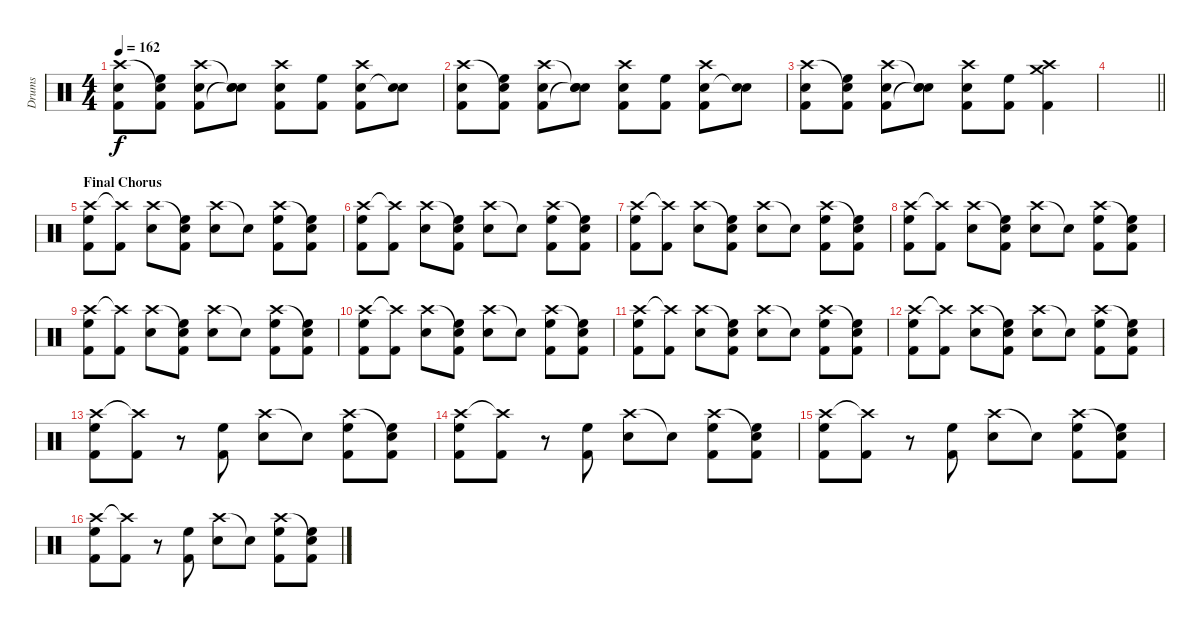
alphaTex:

\track ("Drums" "Drums") {instrument percussion}
\staff {score}
\articulation defaults
\ts (4 4)
\tempo 162
\clef neutral
\ks c
("Crash high (hit)" "Snare (hit) 2" "Kick (hit) 2").8{dy f} ("Snare (hit)"{t} "High Floor Tom (hit)" "Kick (hit) 2").8 ("Crash high (hit)" "Snare (hit) 2" "Kick (hit) 2").8 ("Snare (hit)"{t} "Snare (hit) 2" "Snare (hit)"{t}).8 ("Crash high (hit)" "Snare (hit) 2" "Kick (hit) 2").8 ("High Floor Tom (hit)" "Kick (hit) 2").8 ("Crash high (hit)" "Snare (hit) 2" "Kick (hit) 2").8 ("Snare (hit) 2" "Snare (hit)"{t}).8 |
("Crash high (hit)" "Snare (hit) 2" "Kick (hit) 2").8 ("Snare (hit)"{t} "High Floor Tom (hit)" "Kick (hit) 2").8 ("Crash high (hit)" "Snare (hit) 2" "Kick (hit) 2").8 ("Snare (hit)"{t} "Snare (hit) 2" "Snare (hit)"{t}).8 ("Crash high (hit)" "Snare (hit) 2" "Kick (hit) 2").8 ("High Floor Tom (hit)" "Kick (hit) 2").8 ("Crash high (hit)" "Snare (hit) 2" "Kick (hit) 2").8 ("Snare (hit) 2" "Snare (hit)"{t}).8 |
("Crash high (hit)" "Snare (hit) 2" "Kick (hit) 2").8 ("Snare (hit)"{t} "High Floor Tom (hit)" "Kick (hit) 2").8 ("Crash high (hit)" "Snare (hit) 2" "Kick (hit) 2").8 ("Snare (hit)"{t} "Snare (hit) 2" "Snare (hit)"{t}).8 ("Crash high (hit)" "Snare (hit) 2" "Kick (hit) 2").8 ("High Floor Tom (hit)" "Kick (hit) 2").8 ("Crash high (hit)" "Crash medium (hit)" "Kick (hit) 2").4 |
\barLineRight lightlight
|
\section ("" "Final Chorus")
("Crash high (hit)" "High Floor Tom (hit)" "Kick (hit) 2").8 ("Crash high (hit)"{t} "Kick (hit) 2").8 ("Crash high (hit)" "Snare (hit) 2").8 ("Snare (hit)"{t} "High Floor Tom (hit)" "Kick (hit) 2").8 ("Crash high (hit)" "Snare (hit) 2").8 "Snare (hit)"{t}.8 ("Crash high (hit)" "High Floor Tom (hit)" "Kick (hit) 2").8 ("Snare (hit)"{t} "High Floor Tom (hit)" "Kick (hit) 2").8 |
("Crash high (hit)" "High Floor Tom (hit)" "Kick (hit) 2").8 ("Crash high (hit)"{t} "Kick (hit) 2").8 ("Crash high (hit)" "Snare (hit) 2").8 ("Snare (hit)"{t} "High Floor Tom (hit)" "Kick (hit) 2").8 ("Crash high (hit)" "Snare (hit) 2").8 "Snare (hit)"{t}.8 ("Crash high (hit)" "High Floor Tom (hit)" "Kick (hit) 2").8 ("Snare (hit)"{t} "High Floor Tom (hit)" "Kick (hit) 2").8 |
("Crash high (hit)" "High Floor Tom (hit)" "Kick (hit) 2").8 ("Crash high (hit)"{t} "Kick (hit) 2").8 ("Crash high (hit)" "Snare (hit) 2").8 ("Snare (hit)"{t} "High Floor Tom (hit)" "Kick (hit) 2").8 ("Crash high (hit)" "Snare (hit) 2").8 "Snare (hit)"{t}.8 ("Crash high (hit)" "High Floor Tom (hit)" "Kick (hit) 2").8 ("Snare (hit)"{t} "High Floor Tom (hit)" "Kick (hit) 2").8 |
("Crash high (hit)" "High Floor Tom (hit)" "Kick (hit) 2").8 ("Crash high (hit)"{t} "Kick (hit) 2").8 ("Crash high (hit)" "Snare (hit) 2").8 ("Snare (hit)"{t} "High Floor Tom (hit)" "Kick (hit) 2").8 ("Crash high (hit)" "Snare (hit) 2").8 "Snare (hit)"{t}.8 ("Crash high (hit)" "High Floor Tom (hit)" "Kick (hit) 2").8 ("Snare (hit)"{t} "High Floor Tom (hit)" "Kick (hit) 2").8 |
("Crash high (hit)" "High Floor Tom (hit)" "Kick (hit) 2").8 ("Crash high (hit)"{t} "Kick (hit) 2").8 ("Crash high (hit)" "Snare (hit) 2").8 ("Snare (hit)"{t} "High Floor Tom (hit)" "Kick (hit) 2").8 ("Crash high (hit)" "Snare (hit) 2").8 "Snare (hit)"{t}.8 ("Crash high (hit)" "High Floor Tom (hit)" "Kick (hit) 2").8 ("Snare (hit)"{t} "High Floor Tom (hit)" "Kick (hit) 2").8 |
("Crash high (hit)" "High Floor Tom (hit)" "Kick (hit) 2").8 ("Crash high (hit)"{t} "Kick (hit) 2").8 ("Crash high (hit)" "Snare (hit) 2").8 ("Snare (hit)"{t} "High Floor Tom (hit)" "Kick (hit) 2").8 ("Crash high (hit)" "Snare (hit) 2").8 "Snare (hit)"{t}.8 ("Crash high (hit)" "High Floor Tom (hit)" "Kick (hit) 2").8 ("Snare (hit)"{t} "High Floor Tom (hit)" "Kick (hit) 2").8 |
("Crash high (hit)" "High Floor Tom (hit)" "Kick (hit) 2").8 ("Crash high (hit)"{t} "Kick (hit) 2").8 ("Crash high (hit)" "Snare (hit) 2").8 ("Snare (hit)"{t} "High Floor Tom (hit)" "Kick (hit) 2").8 ("Crash high (hit)" "Snare (hit) 2").8 "Snare (hit)"{t}.8 ("Crash high (hit)" "High Floor Tom (hit)" "Kick (hit) 2").8 ("Snare (hit)"{t} "High Floor Tom (hit)" "Kick (hit) 2").8 |
("Crash high (hit)" "High Floor Tom (hit)" "Kick (hit) 2").8 ("Crash high (hit)"{t} "Kick (hit) 2").8 ("Crash high (hit)" "Snare (hit) 2").8 ("Snare (hit)"{t} "High Floor Tom (hit)" "Kick (hit) 2").8 ("Crash high (hit)" "Snare (hit) 2").8 "Snare (hit)"{t}.8 ("Crash high (hit)" "High Floor Tom (hit)" "Kick (hit) 2").8 ("Snare (hit)"{t} "High Floor Tom (hit)" "Kick (hit) 2").8 |
("Crash high (hit)" "High Floor Tom (hit)" "Kick (hit) 2").8 ("Crash high (hit)"{t} "Kick (hit) 2").8 r.8 ("High Floor Tom (hit)" "Kick (hit) 2").8 ("Crash high (hit)" "Snare (hit) 2").8 "Snare (hit)"{t}.8 ("Crash high (hit)" "High Floor Tom (hit)" "Kick (hit) 2").8 ("Snare (hit)"{t} "High Floor Tom (hit)" "Kick (hit) 2").8 |
("Crash high (hit)" "High Floor Tom (hit)" "Kick (hit) 2").8 ("Crash high (hit)"{t} "Kick (hit) 2").8 r.8 ("High Floor Tom (hit)" "Kick (hit) 2").8 ("Crash high (hit)" "Snare (hit) 2").8 "Snare (hit)"{t}.8 ("Crash high (hit)" "High Floor Tom (hit)" "Kick (hit) 2").8 ("Snare (hit)"{t} "High Floor Tom (hit)" "Kick (hit) 2").8 |
("Crash high (hit)" "High Floor Tom (hit)" "Kick (hit) 2").8 ("Crash high (hit)"{t} "Kick (hit) 2").8 r.8 ("High Floor Tom (hit)" "Kick (hit) 2").8 ("Crash high (hit)" "Snare (hit) 2").8 "Snare (hit)"{t}.8 ("Crash high (hit)" "High Floor Tom (hit)" "Kick (hit) 2").8 ("Snare (hit)"{t} "High Floor Tom (hit)" "Kick (hit) 2").8 |
("Crash high (hit)" "High Floor Tom (hit)" "Kick (hit) 2").8 ("Crash high (hit)"{t} "Kick (hit) 2").8 r.8 ("High Floor Tom (hit)" "Kick (hit) 2").8 ("Crash high (hit)" "Snare (hit) 2").8 "Snare (hit)"{t}.8 ("Crash high (hit)" "High Floor Tom (hit)" "Kick (hit) 2").8 ("Snare (hit)"{t} "High Floor Tom (hit)" "Kick (hit) 2").8
